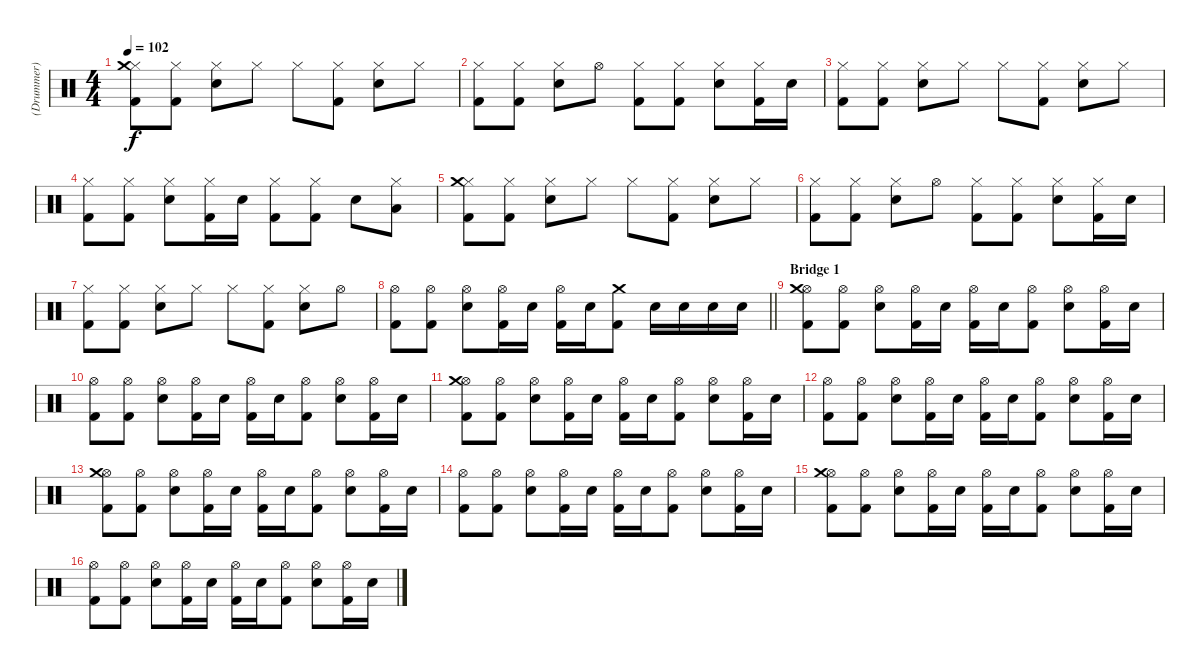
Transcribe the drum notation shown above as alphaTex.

\track ("(Drummer)" "(Drummer)") {solo instrument percussion}
\staff {score}
\articulation defaults
\ts (4 4)
\tempo 102
\clef neutral
\ks c
("Hi-Hat (closed)" "Crash medium (hit)" "Kick (hit) 2").8{dy f} ("Hi-Hat (closed)" "Kick (hit) 2").8 ("Hi-Hat (closed)" "Electric Snare (hit)").8 "Hi-Hat (closed)".8 "Hi-Hat (closed)".8 ("Hi-Hat (closed)" "Kick (hit) 2").8 ("Hi-Hat (closed)" "Electric Snare (hit)").8 "Hi-Hat (closed)".8 |
("Hi-Hat (closed)" "Kick (hit) 2").8 ("Hi-Hat (closed)" "Kick (hit) 2").8 ("Hi-Hat (closed)" "Electric Snare (hit)").8 "Hi-Hat (open)".8 ("Hi-Hat (closed)" "Kick (hit) 2").8 ("Hi-Hat (closed)" "Kick (hit) 2").8 ("Hi-Hat (closed)" "Electric Snare (hit)").8 ("Hi-Hat (closed)" "Kick (hit) 2").16 "Electric Snare (hit)".16 |
("Hi-Hat (closed)" "Kick (hit) 2").8 ("Hi-Hat (closed)" "Kick (hit) 2").8 ("Hi-Hat (closed)" "Electric Snare (hit)").8 "Hi-Hat (closed)".8 "Hi-Hat (closed)".8 ("Hi-Hat (closed)" "Kick (hit) 2").8 ("Hi-Hat (closed)" "Electric Snare (hit)").8 "Hi-Hat (closed)".8 |
("Hi-Hat (closed)" "Kick (hit) 2").8 ("Hi-Hat (closed)" "Kick (hit) 2").8 ("Hi-Hat (closed)" "Electric Snare (hit)").8 ("Hi-Hat (closed)" "Kick (hit) 2").16 "Electric Snare (hit)".16 ("Hi-Hat (closed)" "Kick (hit) 2").8 ("Hi-Hat (closed)" "Kick (hit) 2").8 "Electric Snare (hit)".8 ("Hi-Hat (closed)" "Low Tom (hit)").8 |
("Hi-Hat (closed)" "Crash medium (hit)" "Kick (hit) 2").8 ("Hi-Hat (closed)" "Kick (hit) 2").8 ("Hi-Hat (closed)" "Electric Snare (hit)").8 "Hi-Hat (closed)".8 "Hi-Hat (closed)".8 ("Hi-Hat (closed)" "Kick (hit) 2").8 ("Hi-Hat (closed)" "Electric Snare (hit)").8 "Hi-Hat (closed)".8 |
("Hi-Hat (closed)" "Kick (hit) 2").8 ("Hi-Hat (closed)" "Kick (hit) 2").8 ("Hi-Hat (closed)" "Electric Snare (hit)").8 "Hi-Hat (open)".8 ("Hi-Hat (closed)" "Kick (hit) 2").8 ("Hi-Hat (closed)" "Kick (hit) 2").8 ("Hi-Hat (closed)" "Electric Snare (hit)").8 ("Hi-Hat (closed)" "Kick (hit) 2").16 "Electric Snare (hit)".16 |
("Hi-Hat (closed)" "Kick (hit) 2").8 ("Hi-Hat (closed)" "Kick (hit) 2").8 ("Hi-Hat (closed)" "Electric Snare (hit)").8 "Hi-Hat (closed)".8 "Hi-Hat (closed)".8 ("Hi-Hat (closed)" "Kick (hit) 2").8 ("Hi-Hat (closed)" "Electric Snare (hit)").8 "Hi-Hat (open)".8 |
\barLineRight lightlight
("Hi-Hat (open)" "Kick (hit) 2").8 ("Hi-Hat (open)" "Kick (hit) 2").8 ("Hi-Hat (open)" "Electric Snare (hit)").8 ("Hi-Hat (open)" "Kick (hit) 2").16 "Electric Snare (hit)".16 ("Hi-Hat (open)" "Kick (hit) 2").16 "Electric Snare (hit)".16 ("Crash medium (hit)" "Kick (hit) 2").8 "Electric Snare (hit)".16 "Electric Snare (hit)".16 "Electric Snare (hit)".16 "Electric Snare (hit)".16 |
\section ("" "Bridge 1")
("Hi-Hat (open)" "Crash medium (hit)" "Kick (hit) 2").8 ("Hi-Hat (open)" "Kick (hit) 2").8 ("Hi-Hat (open)" "Electric Snare (hit)").8 ("Hi-Hat (open)" "Kick (hit) 2").16 "Electric Snare (hit)".16 ("Hi-Hat (open)" "Kick (hit) 2").16 "Electric Snare (hit)".16 ("Hi-Hat (open)" "Kick (hit) 2").8 ("Hi-Hat (open)" "Electric Snare (hit)").8 ("Hi-Hat (open)" "Kick (hit) 2").16 "Electric Snare (hit)".16 |
("Hi-Hat (open)" "Kick (hit) 2").8 ("Hi-Hat (open)" "Kick (hit) 2").8 ("Hi-Hat (open)" "Electric Snare (hit)").8 ("Hi-Hat (open)" "Kick (hit) 2").16 "Electric Snare (hit)".16 ("Hi-Hat (open)" "Kick (hit) 2").16 "Electric Snare (hit)".16 ("Hi-Hat (open)" "Kick (hit) 2").8 ("Hi-Hat (open)" "Electric Snare (hit)").8 ("Hi-Hat (open)" "Kick (hit) 2").16 "Electric Snare (hit)".16 |
("Hi-Hat (open)" "Crash medium (hit)" "Kick (hit) 2").8 ("Hi-Hat (open)" "Kick (hit) 2").8 ("Hi-Hat (open)" "Electric Snare (hit)").8 ("Hi-Hat (open)" "Kick (hit) 2").16 "Electric Snare (hit)".16 ("Hi-Hat (open)" "Kick (hit) 2").16 "Electric Snare (hit)".16 ("Hi-Hat (open)" "Kick (hit) 2").8 ("Hi-Hat (open)" "Electric Snare (hit)").8 ("Hi-Hat (open)" "Kick (hit) 2").16 "Electric Snare (hit)".16 |
("Hi-Hat (open)" "Kick (hit) 2").8 ("Hi-Hat (open)" "Kick (hit) 2").8 ("Hi-Hat (open)" "Electric Snare (hit)").8 ("Hi-Hat (open)" "Kick (hit) 2").16 "Electric Snare (hit)".16 ("Hi-Hat (open)" "Kick (hit) 2").16 "Electric Snare (hit)".16 ("Hi-Hat (open)" "Kick (hit) 2").8 ("Hi-Hat (open)" "Electric Snare (hit)").8 ("Hi-Hat (open)" "Kick (hit) 2").16 "Electric Snare (hit)".16 |
("Hi-Hat (open)" "Crash medium (hit)" "Kick (hit) 2").8 ("Hi-Hat (open)" "Kick (hit) 2").8 ("Hi-Hat (open)" "Electric Snare (hit)").8 ("Hi-Hat (open)" "Kick (hit) 2").16 "Electric Snare (hit)".16 ("Hi-Hat (open)" "Kick (hit) 2").16 "Electric Snare (hit)".16 ("Hi-Hat (open)" "Kick (hit) 2").8 ("Hi-Hat (open)" "Electric Snare (hit)").8 ("Hi-Hat (open)" "Kick (hit) 2").16 "Electric Snare (hit)".16 |
("Hi-Hat (open)" "Kick (hit) 2").8 ("Hi-Hat (open)" "Kick (hit) 2").8 ("Hi-Hat (open)" "Electric Snare (hit)").8 ("Hi-Hat (open)" "Kick (hit) 2").16 "Electric Snare (hit)".16 ("Hi-Hat (open)" "Kick (hit) 2").16 "Electric Snare (hit)".16 ("Hi-Hat (open)" "Kick (hit) 2").8 ("Hi-Hat (open)" "Electric Snare (hit)").8 ("Hi-Hat (open)" "Kick (hit) 2").16 "Electric Snare (hit)".16 |
("Hi-Hat (open)" "Crash medium (hit)" "Kick (hit) 2").8 ("Hi-Hat (open)" "Kick (hit) 2").8 ("Hi-Hat (open)" "Electric Snare (hit)").8 ("Hi-Hat (open)" "Kick (hit) 2").16 "Electric Snare (hit)".16 ("Hi-Hat (open)" "Kick (hit) 2").16 "Electric Snare (hit)".16 ("Hi-Hat (open)" "Kick (hit) 2").8 ("Hi-Hat (open)" "Electric Snare (hit)").8 ("Hi-Hat (open)" "Kick (hit) 2").16 "Electric Snare (hit)".16 |
("Hi-Hat (open)" "Kick (hit) 2").8 ("Hi-Hat (open)" "Kick (hit) 2").8 ("Hi-Hat (open)" "Electric Snare (hit)").8 ("Hi-Hat (open)" "Kick (hit) 2").16 "Electric Snare (hit)".16 ("Hi-Hat (open)" "Kick (hit) 2").16 "Electric Snare (hit)".16 ("Hi-Hat (open)" "Kick (hit) 2").8 ("Hi-Hat (open)" "Electric Snare (hit)").8 ("Hi-Hat (open)" "Kick (hit) 2").16 "Electric Snare (hit)".16
